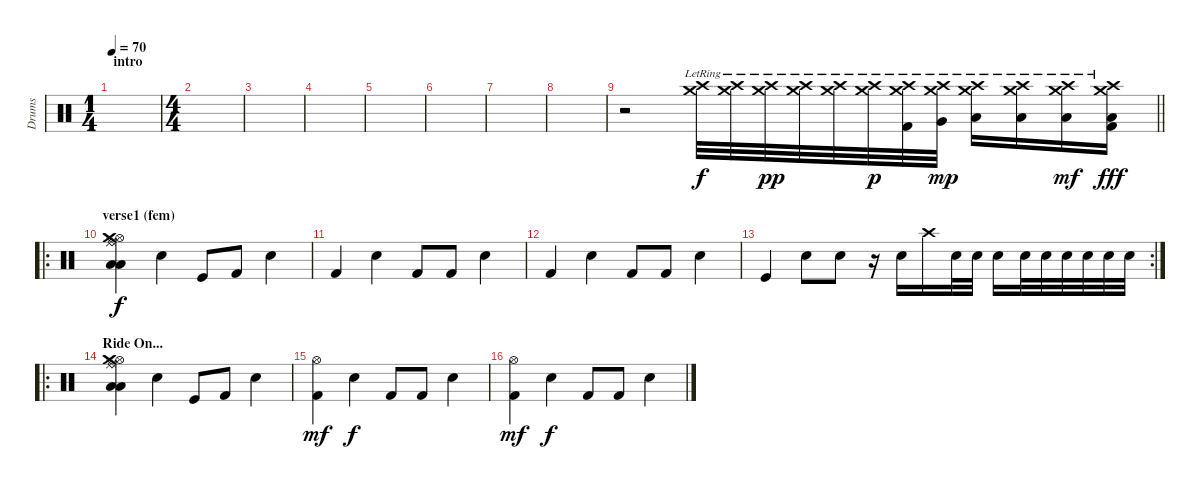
\track ("Drums" "Drums") {instrument percussion}
\staff {score}
\articulation defaults
\ts (1 4)
\section ("" "intro")
\tempo 70
\clef neutral
\ks c
|
\ts (4 4)
|
|
|
|
|
|
|
\barLineRight lightlight
r.2 ("Crash medium (hit)"{lr} "Crash high (hit)").32 ("Crash medium (hit)"{lr} "Crash high (hit)").32 ("Crash medium (hit)"{lr} "Crash high (hit)").32{dy pp} ("Crash medium (hit)"{lr} "Crash high (hit)").32 ("Crash medium (hit)"{lr} "Crash high (hit)").32 ("Crash medium (hit)"{lr} "Crash high (hit)").32{dy p} ("Crash medium (hit)"{lr} "Crash high (hit)" "Kick (hit) 2").32 ("Crash medium (hit)"{lr} "Crash high (hit)" "Very Low Tom (hit)").32{dy mp} ("Crash medium (hit)"{lr} "Crash high (hit)" "Low Tom (hit)").16 ("Crash medium (hit)"{lr} "Crash high (hit)" "Low Tom (hit)").16 ("Crash medium (hit)"{lr} "Crash high (hit)" "Low Tom (hit)").16{dy mf} ("Crash medium (hit)"{lr} "Crash high (hit)" "Low Tom (hit)" "Kick (hit) 2").16{dy fff} |
\ro
\section ("" "verse1 (fem)")
("Hi-Hat (open)" "Ride (middle)" "Ride (bell)" "Low Tom (hit)" "Crash medium (hit)" "Low Tom (hit)").4{dy f} "Snare (hit) 2".4 "Kick (hit)".8 "Kick (hit) 2".8 "Snare (hit) 2".4 |
"Kick (hit) 2".4 "Snare (hit) 2".4 "Kick (hit) 2".8 "Kick (hit) 2".8 "Snare (hit) 2".4 |
"Kick (hit) 2".4 "Snare (hit) 2".4 "Kick (hit) 2".8 "Kick (hit) 2".8 "Snare (hit) 2".4 |
\rc 2 "Kick (hit)".4 "Snare (hit) 2".8 "Snare (hit) 2".8
r.16 "Snare (hit) 2".16 "Crash high (hit)".16 "Snare (hit) 2".32 "Snare (hit) 2".32 "Snare (hit) 2".16 "Snare (hit) 2".32 "Snare (hit) 2".32 "Snare (hit) 2".32 "Snare (hit) 2".32 "Snare (hit) 2".32 "Snare (hit) 2".32 |
\ro
\section ("" "Ride On...")
("Hi-Hat (open)" "Ride (middle)" "Ride (bell)" "Low Tom (hit)" "Crash medium (hit)" "Low Tom (hit)").4 "Snare (hit) 2".4 "Kick (hit)".8 "Kick (hit) 2".8 "Snare (hit) 2".4 |
("Kick (hit) 2" "Hi-Hat (open)").4{dy mf} "Snare (hit) 2".4{dy f} "Kick (hit) 2".8 "Kick (hit) 2".8 "Snare (hit) 2".4 |
("Kick (hit) 2" "Hi-Hat (open)").4{dy mf} "Snare (hit) 2".4{dy f} "Kick (hit) 2".8 "Kick (hit) 2".8 "Snare (hit) 2".4
